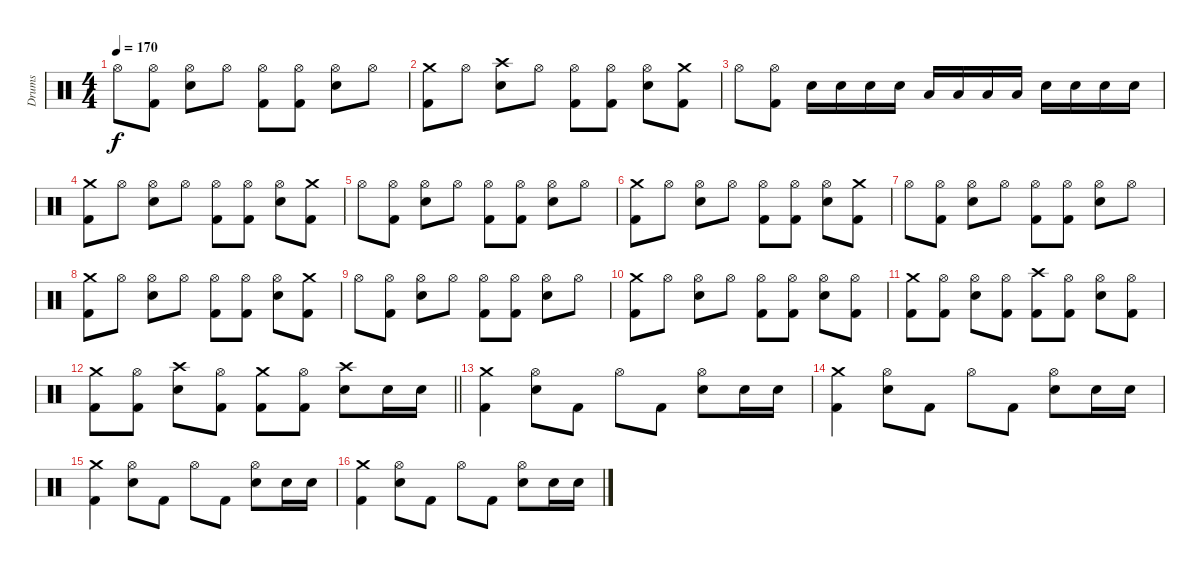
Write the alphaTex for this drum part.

\track ("Drums" "Drums") {instrument percussion}
\staff {score}
\articulation defaults
\ts (4 4)
\tempo 170
\clef neutral
\ks c "Hi-Hat (open)".8{dy f}
("Hi-Hat (open)" "Kick (hit) 2").8 ("Hi-Hat (open)" "Electric Snare (hit)").8 "Hi-Hat (open)".8 ("Hi-Hat (open)" "Kick (hit) 2").8 ("Hi-Hat (open)" "Kick (hit) 2").8 ("Hi-Hat (open)" "Electric Snare (hit)").8 "Hi-Hat (open)".8 |
("Crash medium (hit)" "Kick (hit) 2").8 "Hi-Hat (open)".8 ("Crash high (hit)" "Electric Snare (hit)").8 "Hi-Hat (open)".8 ("Hi-Hat (open)" "Kick (hit) 2").8 ("Hi-Hat (open)" "Kick (hit) 2").8 ("Hi-Hat (open)" "Electric Snare (hit)").8 ("Crash medium (hit)" "Kick (hit) 2").8 |
"Hi-Hat (open)".8 ("Hi-Hat (open)" "Kick (hit) 2").8 "Electric Snare (hit)".16 "Electric Snare (hit)".16 "Electric Snare (hit)".16 "Electric Snare (hit)".16 "Low Tom (hit)".16 "Low Tom (hit)".16 "Low Tom (hit)".16 "Low Tom (hit)".16 "Electric Snare (hit)".16 "Electric Snare (hit)".16 "Electric Snare (hit)".16 "Electric Snare (hit)".16 |
("Crash medium (hit)" "Kick (hit) 2").8 "Hi-Hat (open)".8 ("Hi-Hat (open)" "Electric Snare (hit)").8 "Hi-Hat (open)".8 ("Hi-Hat (open)" "Kick (hit) 2").8 ("Hi-Hat (open)" "Kick (hit) 2").8 ("Hi-Hat (open)" "Electric Snare (hit)").8 ("Crash medium (hit)" "Kick (hit) 2").8 |
"Hi-Hat (open)".8 ("Hi-Hat (open)" "Kick (hit) 2").8 ("Hi-Hat (open)" "Electric Snare (hit)").8 "Hi-Hat (open)".8 ("Hi-Hat (open)" "Kick (hit) 2").8 ("Hi-Hat (open)" "Kick (hit) 2").8 ("Hi-Hat (open)" "Electric Snare (hit)").8 "Hi-Hat (open)".8 |
("Crash medium (hit)" "Kick (hit) 2").8 "Hi-Hat (open)".8 ("Hi-Hat (open)" "Electric Snare (hit)").8 "Hi-Hat (open)".8 ("Hi-Hat (open)" "Kick (hit) 2").8 ("Hi-Hat (open)" "Kick (hit) 2").8 ("Hi-Hat (open)" "Electric Snare (hit)").8 ("Crash medium (hit)" "Kick (hit) 2").8 |
"Hi-Hat (open)".8 ("Hi-Hat (open)" "Kick (hit) 2").8 ("Hi-Hat (open)" "Electric Snare (hit)").8 "Hi-Hat (open)".8 ("Hi-Hat (open)" "Kick (hit) 2").8 ("Hi-Hat (open)" "Kick (hit) 2").8 ("Hi-Hat (open)" "Electric Snare (hit)").8 "Hi-Hat (open)".8 |
("Crash medium (hit)" "Kick (hit) 2").8 "Hi-Hat (open)".8 ("Hi-Hat (open)" "Electric Snare (hit)").8 "Hi-Hat (open)".8 ("Hi-Hat (open)" "Kick (hit) 2").8 ("Hi-Hat (open)" "Kick (hit) 2").8 ("Hi-Hat (open)" "Electric Snare (hit)").8 ("Crash medium (hit)" "Kick (hit) 2").8 |
"Hi-Hat (open)".8 ("Hi-Hat (open)" "Kick (hit) 2").8 ("Hi-Hat (open)" "Electric Snare (hit)").8 "Hi-Hat (open)".8 ("Hi-Hat (open)" "Kick (hit) 2").8 ("Hi-Hat (open)" "Kick (hit) 2").8 ("Hi-Hat (open)" "Electric Snare (hit)").8 "Hi-Hat (open)".8 |
("Crash medium (hit)" "Kick (hit) 2").8 "Hi-Hat (open)".8 ("Hi-Hat (open)" "Electric Snare (hit)").8 "Hi-Hat (open)".8 ("Hi-Hat (open)" "Kick (hit) 2").8 ("Hi-Hat (open)" "Kick (hit) 2").8 ("Hi-Hat (open)" "Electric Snare (hit)").8 ("Hi-Hat (open)" "Kick (hit) 2").8 |
("Crash medium (hit)" "Kick (hit) 2").8 ("Hi-Hat (open)" "Kick (hit) 2").8 ("Hi-Hat (open)" "Electric Snare (hit)").8 ("Hi-Hat (open)" "Kick (hit) 2").8 ("Crash high (hit)" "Kick (hit) 2").8 ("Hi-Hat (open)" "Kick (hit) 2").8 ("Hi-Hat (open)" "Electric Snare (hit)").8 ("Hi-Hat (open)" "Kick (hit) 2").8 |
\barLineRight lightlight
("Crash medium (hit)" "Kick (hit) 2").8 ("Hi-Hat (open)" "Kick (hit) 2").8 ("Crash high (hit)" "Electric Snare (hit)").8 ("Hi-Hat (open)" "Kick (hit) 2").8 ("Crash medium (hit)" "Kick (hit) 2").8 ("Hi-Hat (open)" "Kick (hit) 2").8 ("Crash high (hit)" "Electric Snare (hit)").8 "Electric Snare (hit)".16 "Electric Snare (hit)".16 |
("Crash medium (hit)" "Kick (hit) 2").4 ("Hi-Hat (open)" "Electric Snare (hit)").8 "Kick (hit) 2".8 "Hi-Hat (open)".8 "Kick (hit) 2".8 ("Hi-Hat (open)" "Electric Snare (hit)").8 "Electric Snare (hit)".16 "Electric Snare (hit)".16 |
("Crash medium (hit)" "Kick (hit) 2").4 ("Hi-Hat (open)" "Electric Snare (hit)").8 "Kick (hit) 2".8 "Hi-Hat (open)".8 "Kick (hit) 2".8 ("Hi-Hat (open)" "Electric Snare (hit)").8 "Electric Snare (hit)".16 "Electric Snare (hit)".16 |
("Crash medium (hit)" "Kick (hit) 2").4 ("Hi-Hat (open)" "Electric Snare (hit)").8 "Kick (hit) 2".8 "Hi-Hat (open)".8 "Kick (hit) 2".8 ("Hi-Hat (open)" "Electric Snare (hit)").8 "Electric Snare (hit)".16 "Electric Snare (hit)".16 |
("Crash medium (hit)" "Kick (hit) 2").4 ("Hi-Hat (open)" "Electric Snare (hit)").8 "Kick (hit) 2".8 "Hi-Hat (open)".8 "Kick (hit) 2".8 ("Hi-Hat (open)" "Electric Snare (hit)").8 "Electric Snare (hit)".16 "Electric Snare (hit)".16
